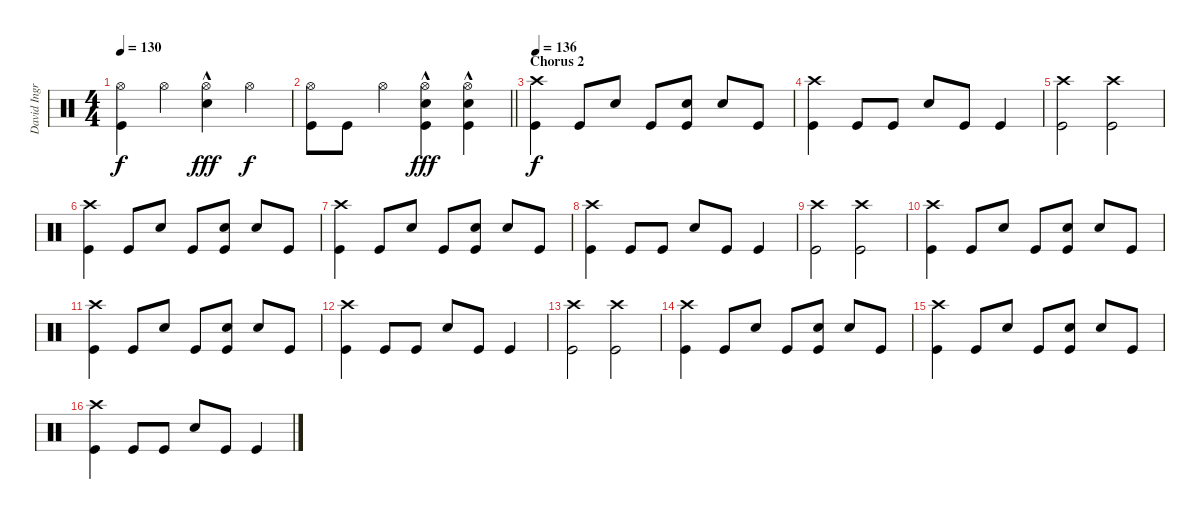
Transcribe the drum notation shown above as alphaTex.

\track ("David Ingraham" "David Ingr") {instrument percussion}
\staff {score}
\articulation defaults
\ts (4 4)
\tempo 130
\clef neutral
\ks c
("Hi-Hat (open)" "Kick (hit)").4{dy f} "Hi-Hat (open)".4 ("Hi-Hat (open)" "Snare (hit) 2"{hac}).4{dy fff} "Hi-Hat (open)".4{dy f} |
\barLineRight lightlight
("Hi-Hat (open)" "Kick (hit)").8 "Kick (hit)".8 "Hi-Hat (open)".4 ("Hi-Hat (open)" "Snare (hit) 2"{hac} "Kick (hit)").4{dy fff} ("Hi-Hat (open)" "Snare (hit) 2"{hac} "Kick (hit)").4 |
\section ("" "Chorus 2")
\tempo 136
("Crash high (hit)" "Kick (hit)").4{dy f} "Kick (hit)".8 "Snare (hit) 2".8 "Kick (hit)".8 ("Snare (hit) 2" "Kick (hit)").8 "Snare (hit) 2".8 "Kick (hit)".8 |
("Crash high (hit)" "Kick (hit)").4 "Kick (hit)".8 "Kick (hit)".8 "Snare (hit) 2".8 "Kick (hit)".8 "Kick (hit)".4 |
("Crash high (hit)" "Kick (hit)").2 ("Crash high (hit)" "Kick (hit)").2 |
("Crash high (hit)" "Kick (hit)").4 "Kick (hit)".8 "Snare (hit) 2".8 "Kick (hit)".8 ("Snare (hit) 2" "Kick (hit)").8 "Snare (hit) 2".8 "Kick (hit)".8 |
("Crash high (hit)" "Kick (hit)").4 "Kick (hit)".8 "Snare (hit) 2".8 "Kick (hit)".8 ("Snare (hit) 2" "Kick (hit)").8 "Snare (hit) 2".8 "Kick (hit)".8 |
("Crash high (hit)" "Kick (hit)").4 "Kick (hit)".8 "Kick (hit)".8 "Snare (hit) 2".8 "Kick (hit)".8 "Kick (hit)".4 |
("Crash high (hit)" "Kick (hit)").2 ("Crash high (hit)" "Kick (hit)").2 |
("Crash high (hit)" "Kick (hit)").4 "Kick (hit)".8 "Snare (hit) 2".8 "Kick (hit)".8 ("Snare (hit) 2" "Kick (hit)").8 "Snare (hit) 2".8 "Kick (hit)".8 |
("Crash high (hit)" "Kick (hit)").4 "Kick (hit)".8 "Snare (hit) 2".8 "Kick (hit)".8 ("Snare (hit) 2" "Kick (hit)").8 "Snare (hit) 2".8 "Kick (hit)".8 |
("Crash high (hit)" "Kick (hit)").4 "Kick (hit)".8 "Kick (hit)".8 "Snare (hit) 2".8 "Kick (hit)".8 "Kick (hit)".4 |
("Crash high (hit)" "Kick (hit)").2 ("Crash high (hit)" "Kick (hit)").2 |
("Crash high (hit)" "Kick (hit)").4 "Kick (hit)".8 "Snare (hit) 2".8 "Kick (hit)".8 ("Snare (hit) 2" "Kick (hit)").8 "Snare (hit) 2".8 "Kick (hit)".8 |
("Crash high (hit)" "Kick (hit)").4 "Kick (hit)".8 "Snare (hit) 2".8 "Kick (hit)".8 ("Snare (hit) 2" "Kick (hit)").8 "Snare (hit) 2".8 "Kick (hit)".8 |
("Crash high (hit)" "Kick (hit)").4 "Kick (hit)".8 "Kick (hit)".8 "Snare (hit) 2".8 "Kick (hit)".8 "Kick (hit)".4
